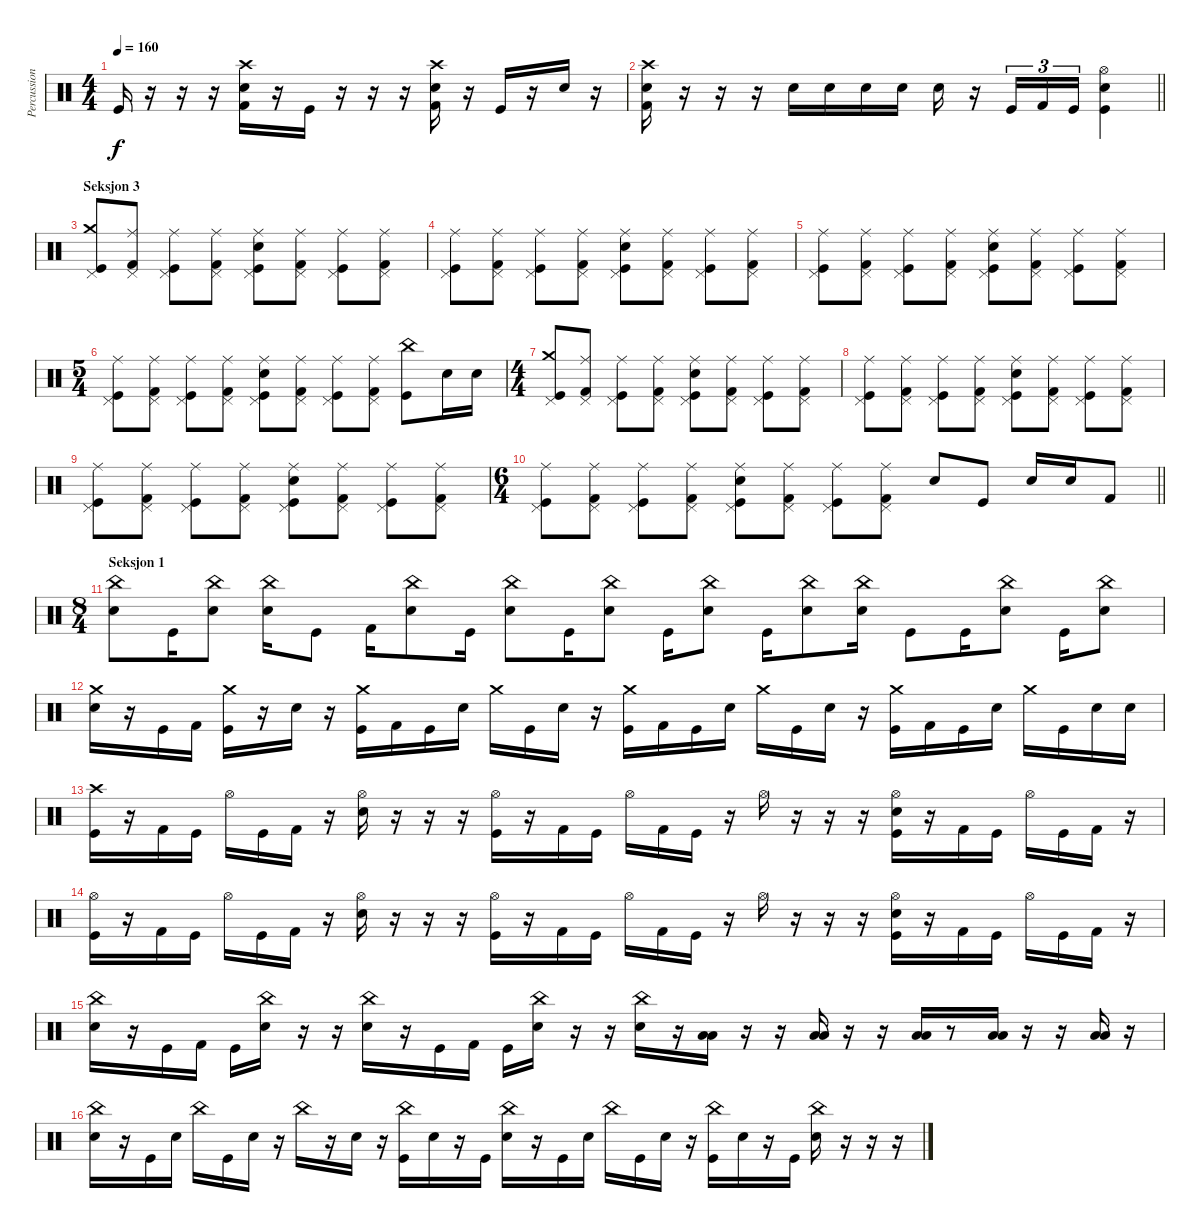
\track ("Percussion" "Percussion") {instrument percussion}
\staff {score}
\articulation defaults
\ts (4 4)
\tempo 160
\clef neutral
\ks c "Kick (hit)".16{dy f}
r.16 r.16 r.16 ("Crash high (hit)" "Snare (hit) 2" "Kick (hit) 2").16 r.16 "Kick (hit)".16 r.16 r.16 r.16 ("Crash high (hit)" "Snare (hit) 2" "Kick (hit) 2").16 r.16 "Kick (hit)".16 r.16 "Snare (hit) 2".16 r.16 |
\barLineRight lightlight
("Crash high (hit)" "Snare (hit) 2" "Kick (hit) 2").16 r.16 r.16 r.16 "Snare (hit) 2".16 "Snare (hit) 2".16 "Snare (hit) 2".16 "Snare (hit) 2".16 "Snare (hit) 2".16 r.16 "Kick (hit)".16{tu (3 2)} "Kick (hit) 2".16{tu (3 2)} "Kick (hit)".16{tu (3 2)} ("Hi-Hat (open)" "Snare (hit) 2" "Kick (hit)").4 |
\section ("" "Seksjon 3")
("Crash medium (hit)" "Pedal Hi-Hat (hit)" "Kick (hit)").8 ("Ride (middle)" "Pedal Hi-Hat (hit)" "Kick (hit) 2").8 ("Ride (middle)" "Pedal Hi-Hat (hit)" "Kick (hit)").8 ("Ride (middle)" "Pedal Hi-Hat (hit)" "Kick (hit) 2").8 ("Ride (middle)" "Pedal Hi-Hat (hit)" "Snare (hit) 2" "Kick (hit)").8 ("Ride (middle)" "Pedal Hi-Hat (hit)" "Kick (hit) 2").8 ("Ride (middle)" "Pedal Hi-Hat (hit)" "Kick (hit)").8 ("Ride (middle)" "Pedal Hi-Hat (hit)" "Kick (hit) 2").8 |
("Ride (middle)" "Pedal Hi-Hat (hit)" "Kick (hit)").8 ("Ride (middle)" "Pedal Hi-Hat (hit)" "Kick (hit) 2").8 ("Ride (middle)" "Pedal Hi-Hat (hit)" "Kick (hit)").8 ("Ride (middle)" "Pedal Hi-Hat (hit)" "Kick (hit) 2").8 ("Ride (middle)" "Pedal Hi-Hat (hit)" "Snare (hit) 2" "Kick (hit)").8 ("Ride (middle)" "Pedal Hi-Hat (hit)" "Kick (hit) 2").8 ("Ride (middle)" "Pedal Hi-Hat (hit)" "Kick (hit)").8 ("Ride (middle)" "Pedal Hi-Hat (hit)" "Kick (hit) 2").8 |
("Ride (middle)" "Pedal Hi-Hat (hit)" "Kick (hit)").8 ("Ride (middle)" "Pedal Hi-Hat (hit)" "Kick (hit) 2").8 ("Ride (middle)" "Pedal Hi-Hat (hit)" "Kick (hit)").8 ("Ride (middle)" "Pedal Hi-Hat (hit)" "Kick (hit) 2").8 ("Ride (middle)" "Pedal Hi-Hat (hit)" "Snare (hit) 2" "Kick (hit)").8 ("Ride (middle)" "Pedal Hi-Hat (hit)" "Kick (hit) 2").8 ("Ride (middle)" "Pedal Hi-Hat (hit)" "Kick (hit)").8 ("Ride (middle)" "Pedal Hi-Hat (hit)" "Kick (hit) 2").8 |
\ts (5 4)
("Ride (middle)" "Pedal Hi-Hat (hit)" "Kick (hit)").8 ("Ride (middle)" "Pedal Hi-Hat (hit)" "Kick (hit) 2").8 ("Ride (middle)" "Pedal Hi-Hat (hit)" "Kick (hit)").8 ("Ride (middle)" "Pedal Hi-Hat (hit)" "Kick (hit) 2").8 ("Ride (middle)" "Pedal Hi-Hat (hit)" "Snare (hit) 2" "Kick (hit)").8 ("Ride (middle)" "Pedal Hi-Hat (hit)" "Kick (hit) 2").8 ("Ride (middle)" "Pedal Hi-Hat (hit)" "Kick (hit)").8 ("Ride (middle)" "Pedal Hi-Hat (hit)" "Kick (hit) 2").8 ("China (hit)" "Kick (hit)").8 "Snare (hit) 2".16 "Snare (hit) 2".16 |
\ts (4 4)
("Crash medium (hit)" "Pedal Hi-Hat (hit)" "Kick (hit)").8 ("Ride (middle)" "Pedal Hi-Hat (hit)" "Kick (hit) 2").8 ("Ride (middle)" "Pedal Hi-Hat (hit)" "Kick (hit)").8 ("Ride (middle)" "Pedal Hi-Hat (hit)" "Kick (hit) 2").8 ("Ride (middle)" "Pedal Hi-Hat (hit)" "Snare (hit) 2" "Kick (hit)").8 ("Ride (middle)" "Pedal Hi-Hat (hit)" "Kick (hit) 2").8 ("Ride (middle)" "Pedal Hi-Hat (hit)" "Kick (hit)").8 ("Ride (middle)" "Pedal Hi-Hat (hit)" "Kick (hit) 2").8 |
("Ride (middle)" "Pedal Hi-Hat (hit)" "Kick (hit)").8 ("Ride (middle)" "Pedal Hi-Hat (hit)" "Kick (hit) 2").8 ("Ride (middle)" "Pedal Hi-Hat (hit)" "Kick (hit)").8 ("Ride (middle)" "Pedal Hi-Hat (hit)" "Kick (hit) 2").8 ("Ride (middle)" "Pedal Hi-Hat (hit)" "Snare (hit) 2" "Kick (hit)").8 ("Ride (middle)" "Pedal Hi-Hat (hit)" "Kick (hit) 2").8 ("Ride (middle)" "Pedal Hi-Hat (hit)" "Kick (hit)").8 ("Ride (middle)" "Pedal Hi-Hat (hit)" "Kick (hit) 2").8 |
("Ride (middle)" "Pedal Hi-Hat (hit)" "Kick (hit)").8 ("Ride (middle)" "Pedal Hi-Hat (hit)" "Kick (hit) 2").8 ("Ride (middle)" "Pedal Hi-Hat (hit)" "Kick (hit)").8 ("Ride (middle)" "Pedal Hi-Hat (hit)" "Kick (hit) 2").8 ("Ride (middle)" "Pedal Hi-Hat (hit)" "Snare (hit) 2" "Kick (hit)").8 ("Ride (middle)" "Pedal Hi-Hat (hit)" "Kick (hit) 2").8 ("Ride (middle)" "Pedal Hi-Hat (hit)" "Kick (hit)").8 ("Ride (middle)" "Pedal Hi-Hat (hit)" "Kick (hit) 2").8 |
\ts (6 4)
\barLineRight lightlight
("Ride (middle)" "Pedal Hi-Hat (hit)" "Kick (hit)").8 ("Ride (middle)" "Pedal Hi-Hat (hit)" "Kick (hit) 2").8 ("Ride (middle)" "Pedal Hi-Hat (hit)" "Kick (hit)").8 ("Ride (middle)" "Pedal Hi-Hat (hit)" "Kick (hit) 2").8 ("Ride (middle)" "Pedal Hi-Hat (hit)" "Snare (hit) 2" "Kick (hit)").8 ("Ride (middle)" "Pedal Hi-Hat (hit)" "Kick (hit) 2").8 ("Ride (middle)" "Pedal Hi-Hat (hit)" "Kick (hit)").8 ("Ride (middle)" "Pedal Hi-Hat (hit)" "Kick (hit) 2").8 "Snare (hit) 2".8 "Kick (hit)".8 "Snare (hit) 2".16 "Snare (hit) 2".16 "Kick (hit) 2".8 |
\ts (8 4)
\section ("" "Seksjon 1")
("China (hit)" "Snare (hit) 2").8 "Kick (hit)".16 ("China (hit)" "Snare (hit) 2").8 ("China (hit)" "Snare (hit) 2").16 "Kick (hit)".8 "Kick (hit) 2".16 ("China (hit)" "Snare (hit) 2").8 "Kick (hit)".16 ("China (hit)" "Snare (hit) 2").8 "Kick (hit)".16 ("China (hit)" "Snare (hit) 2").8 "Kick (hit)".16 ("China (hit)" "Snare (hit) 2").8 "Kick (hit)".16 ("China (hit)" "Snare (hit) 2").8 ("China (hit)" "Snare (hit) 2").16 "Kick (hit)".8 "Kick (hit)".16 ("China (hit)" "Snare (hit) 2").8 "Kick (hit)".16 ("China (hit)" "Snare (hit) 2").8 |
("Crash medium (hit)" "Snare (hit) 2").16 r.16 "Kick (hit)".16 "Kick (hit) 2".16 ("Crash medium (hit)" "Kick (hit)").16 r.16 "Snare (hit) 2".16 r.16 ("Crash medium (hit)" "Kick (hit)").16 "Kick (hit) 2".16 "Kick (hit)".16 "Snare (hit) 2".16 "Crash medium (hit)".16 "Kick (hit)".16 "Snare (hit) 2".16 r.16 ("Crash medium (hit)" "Kick (hit)").16 "Kick (hit) 2".16 "Kick (hit)".16 "Snare (hit) 2".16 "Crash medium (hit)".16 "Kick (hit)".16 "Snare (hit) 2".16 r.16 ("Crash medium (hit)" "Kick (hit)").16 "Kick (hit) 2".16 "Kick (hit)".16 "Snare (hit) 2".16 "Crash medium (hit)".16 "Kick (hit)".16 "Snare (hit) 2".16 "Snare (hit) 2".16 |
("Crash high (hit)" "Kick (hit)").16 r.16 "Kick (hit) 2".16 "Kick (hit)".16 "Hi-Hat (open)".16 "Kick (hit)".16 "Kick (hit) 2".16 r.16 ("Hi-Hat (open)" "Snare (hit) 2").16 r.16 r.16 r.16 ("Hi-Hat (open)" "Kick (hit)").16 r.16 "Kick (hit) 2".16 "Kick (hit)".16 "Hi-Hat (open)".16 "Kick (hit) 2".16 "Kick (hit)".16 r.16 "Hi-Hat (open)".16 r.16 r.16 r.16 ("Hi-Hat (open)" "Snare (hit) 2" "Kick (hit)").16 r.16 "Kick (hit) 2".16 "Kick (hit)".16 "Hi-Hat (open)".16 "Kick (hit)".16 "Kick (hit) 2".16 r.16 |
("Hi-Hat (open)" "Kick (hit)").16 r.16 "Kick (hit) 2".16 "Kick (hit)".16 "Hi-Hat (open)".16 "Kick (hit)".16 "Kick (hit) 2".16 r.16 ("Hi-Hat (open)" "Snare (hit) 2").16 r.16 r.16 r.16 ("Hi-Hat (open)" "Kick (hit)").16 r.16 "Kick (hit) 2".16 "Kick (hit)".16 "Hi-Hat (open)".16 "Kick (hit) 2".16 "Kick (hit)".16 r.16 "Hi-Hat (open)".16 r.16 r.16 r.16 ("Hi-Hat (open)" "Snare (hit) 2" "Kick (hit)").16 r.16 "Kick (hit) 2".16 "Kick (hit)".16 "Hi-Hat (open)".16 "Kick (hit)".16 "Kick (hit) 2".16 r.16 |
("China (hit)" "Snare (hit) 2").16 r.16 "Kick (hit)".16 "Kick (hit) 2".16 "Kick (hit)".16 ("China (hit)" "Snare (hit) 2").16 r.16 r.16 ("China (hit)" "Snare (hit) 2").16 r.16 "Kick (hit)".16 "Kick (hit) 2".16 "Kick (hit)".16 ("China (hit)" "Snare (hit) 2").16 r.16 r.16 ("China (hit)" "Snare (hit) 2").16 r.16 ("Low Tom (hit)" "Low Floor Tom (hit)").16 r.16 r.16 ("Low Tom (hit)" "Low Floor Tom (hit)").16 r.16 r.16 ("Low Tom (hit)" "Low Floor Tom (hit)").16 r.8 ("Low Tom (hit)" "Low Floor Tom (hit)").16 r.16 r.16 ("Low Tom (hit)" "Low Floor Tom (hit)").16 r.16 |
("China (hit)" "Snare (hit) 2").16 r.16 "Kick (hit)".16 "Snare (hit) 2".16 "China (hit)".16 "Kick (hit)".16 "Snare (hit) 2".16 r.16 "China (hit)".16 r.16 "Snare (hit) 2".16 r.16 ("China (hit)" "Kick (hit)").16 "Snare (hit) 2".16 r.16 "Kick (hit)".16 ("China (hit)" "Snare (hit) 2").16 r.16 "Kick (hit)".16 "Snare (hit) 2".16 "China (hit)".16 "Kick (hit)".16 "Snare (hit) 2".16 r.16 ("China (hit)" "Kick (hit)").16 "Snare (hit) 2".16 r.16 "Kick (hit)".16 ("China (hit)" "Snare (hit) 2").16 r.16 r.16 r.16
